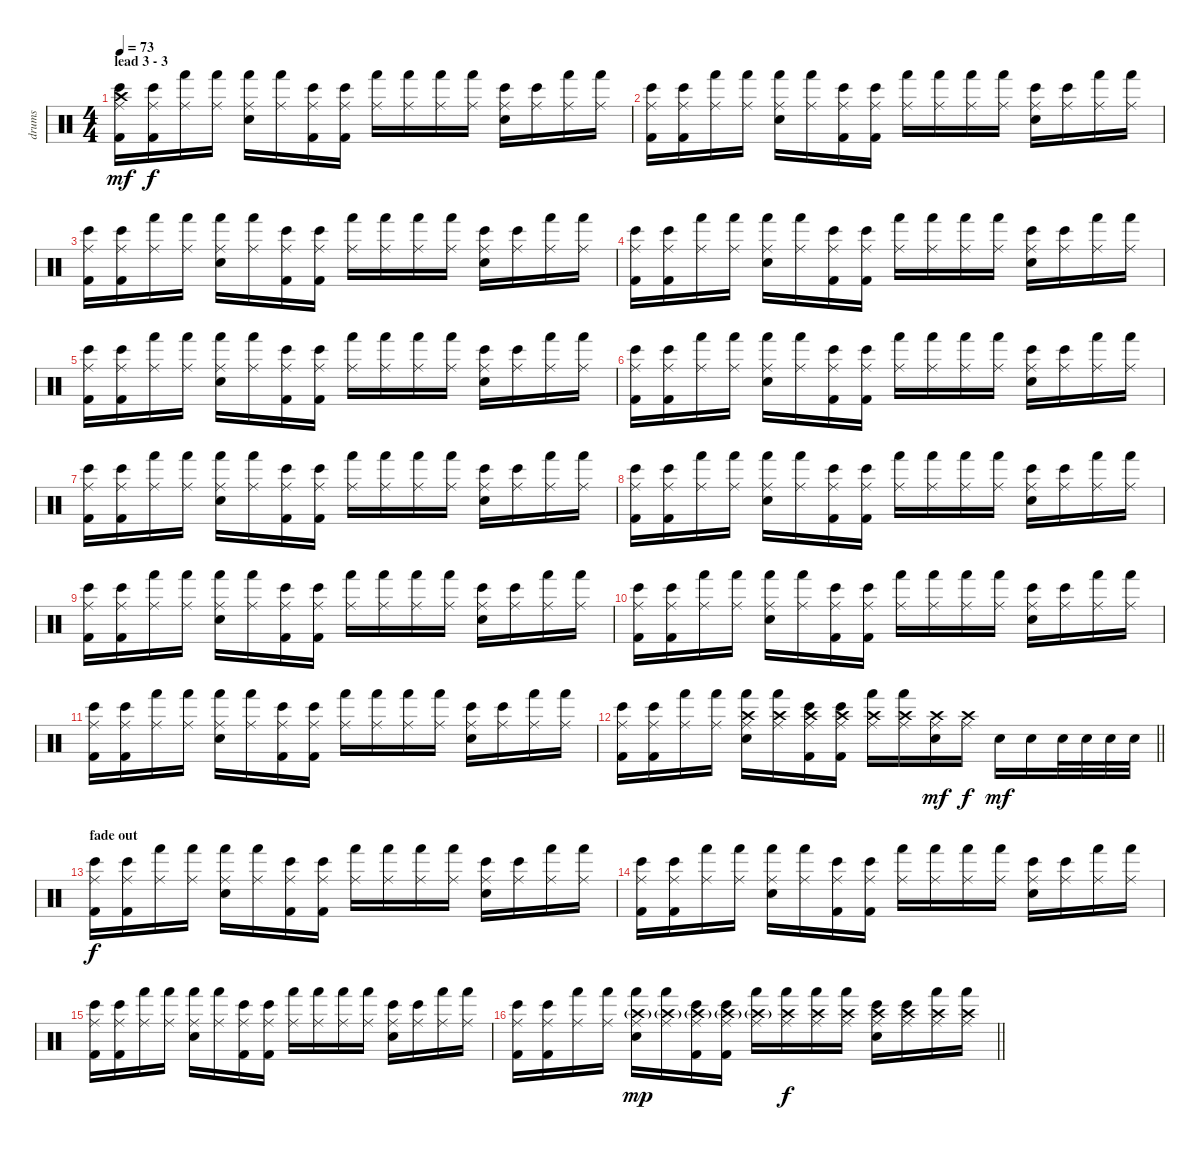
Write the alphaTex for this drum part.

\track ("drums" "drums") {instrument percussion}
\staff {score}
\articulation defaults
\ts (4 4)
\section ("" "lead 3 - 3")
\tempo 73
\clef neutral
\ks c
("Kick (hit) 2" "Bongo High (hit)" "Ride (middle)" "Crash high (hit)").16{dy mf} ("Kick (hit) 2" "Bongo High (hit)" "Ride (middle)").16{dy f} ("Hand (hit)" "Ride (middle)").16 ("Hand (hit)" "Ride (middle)").16 ("Electric Snare (hit)" "Hand (hit)" "Ride (middle)").16 ("Hand (hit)" "Ride (middle)").16 ("Kick (hit) 2" "Bongo High (hit)" "Ride (middle)").16 ("Kick (hit) 2" "Bongo High (hit)" "Ride (middle)").16 ("Hand (hit)" "Ride (middle)").16 ("Hand (hit)" "Ride (middle)").16 ("Hand (hit)" "Ride (middle)").16 ("Hand (hit)" "Ride (middle)").16 ("Electric Snare (hit)" "Bongo High (hit)" "Ride (middle)").16 ("Bongo High (hit)" "Ride (middle)").16 ("Hand (hit)" "Ride (middle)").16 ("Hand (hit)" "Ride (middle)").16 |
("Kick (hit) 2" "Bongo High (hit)" "Ride (middle)").16 ("Kick (hit) 2" "Bongo High (hit)" "Ride (middle)").16 ("Hand (hit)" "Ride (middle)").16 ("Hand (hit)" "Ride (middle)").16 ("Electric Snare (hit)" "Hand (hit)" "Ride (middle)").16 ("Hand (hit)" "Ride (middle)").16 ("Kick (hit) 2" "Bongo High (hit)" "Ride (middle)").16 ("Kick (hit) 2" "Bongo High (hit)" "Ride (middle)").16 ("Hand (hit)" "Ride (middle)").16 ("Hand (hit)" "Ride (middle)").16 ("Hand (hit)" "Ride (middle)").16 ("Hand (hit)" "Ride (middle)").16 ("Electric Snare (hit)" "Bongo High (hit)" "Ride (middle)").16 ("Bongo High (hit)" "Ride (middle)").16 ("Hand (hit)" "Ride (middle)").16 ("Hand (hit)" "Ride (middle)").16 |
("Kick (hit) 2" "Bongo High (hit)" "Ride (middle)").16 ("Kick (hit) 2" "Bongo High (hit)" "Ride (middle)").16 ("Hand (hit)" "Ride (middle)").16 ("Hand (hit)" "Ride (middle)").16 ("Electric Snare (hit)" "Hand (hit)" "Ride (middle)").16 ("Hand (hit)" "Ride (middle)").16 ("Kick (hit) 2" "Bongo High (hit)" "Ride (middle)").16 ("Kick (hit) 2" "Bongo High (hit)" "Ride (middle)").16 ("Hand (hit)" "Ride (middle)").16 ("Hand (hit)" "Ride (middle)").16 ("Hand (hit)" "Ride (middle)").16 ("Hand (hit)" "Ride (middle)").16 ("Electric Snare (hit)" "Bongo High (hit)" "Ride (middle)").16 ("Bongo High (hit)" "Ride (middle)").16 ("Hand (hit)" "Ride (middle)").16 ("Hand (hit)" "Ride (middle)").16 |
("Kick (hit) 2" "Bongo High (hit)" "Ride (middle)").16 ("Kick (hit) 2" "Bongo High (hit)" "Ride (middle)").16 ("Hand (hit)" "Ride (middle)").16 ("Hand (hit)" "Ride (middle)").16 ("Electric Snare (hit)" "Hand (hit)" "Ride (middle)").16 ("Hand (hit)" "Ride (middle)").16 ("Kick (hit) 2" "Bongo High (hit)" "Ride (middle)").16 ("Kick (hit) 2" "Bongo High (hit)" "Ride (middle)").16 ("Hand (hit)" "Ride (middle)").16 ("Hand (hit)" "Ride (middle)").16 ("Hand (hit)" "Ride (middle)").16 ("Hand (hit)" "Ride (middle)").16 ("Electric Snare (hit)" "Bongo High (hit)" "Ride (middle)").16 ("Bongo High (hit)" "Ride (middle)").16 ("Hand (hit)" "Ride (middle)").16 ("Hand (hit)" "Ride (middle)").16 |
("Kick (hit) 2" "Bongo High (hit)" "Ride (middle)").16 ("Kick (hit) 2" "Bongo High (hit)" "Ride (middle)").16 ("Hand (hit)" "Ride (middle)").16 ("Hand (hit)" "Ride (middle)").16 ("Electric Snare (hit)" "Hand (hit)" "Ride (middle)").16 ("Hand (hit)" "Ride (middle)").16 ("Kick (hit) 2" "Bongo High (hit)" "Ride (middle)").16 ("Kick (hit) 2" "Bongo High (hit)" "Ride (middle)").16 ("Hand (hit)" "Ride (middle)").16 ("Hand (hit)" "Ride (middle)").16 ("Hand (hit)" "Ride (middle)").16 ("Hand (hit)" "Ride (middle)").16 ("Electric Snare (hit)" "Bongo High (hit)" "Ride (middle)").16 ("Bongo High (hit)" "Ride (middle)").16 ("Hand (hit)" "Ride (middle)").16 ("Hand (hit)" "Ride (middle)").16 |
("Kick (hit) 2" "Bongo High (hit)" "Ride (middle)").16 ("Kick (hit) 2" "Bongo High (hit)" "Ride (middle)").16 ("Hand (hit)" "Ride (middle)").16 ("Hand (hit)" "Ride (middle)").16 ("Electric Snare (hit)" "Hand (hit)" "Ride (middle)").16 ("Hand (hit)" "Ride (middle)").16 ("Kick (hit) 2" "Bongo High (hit)" "Ride (middle)").16 ("Kick (hit) 2" "Bongo High (hit)" "Ride (middle)").16 ("Hand (hit)" "Ride (middle)").16 ("Hand (hit)" "Ride (middle)").16 ("Hand (hit)" "Ride (middle)").16 ("Hand (hit)" "Ride (middle)").16 ("Electric Snare (hit)" "Bongo High (hit)" "Ride (middle)").16 ("Bongo High (hit)" "Ride (middle)").16 ("Hand (hit)" "Ride (middle)").16 ("Hand (hit)" "Ride (middle)").16 |
("Kick (hit) 2" "Bongo High (hit)" "Ride (middle)").16 ("Kick (hit) 2" "Bongo High (hit)" "Ride (middle)").16 ("Hand (hit)" "Ride (middle)").16 ("Hand (hit)" "Ride (middle)").16 ("Electric Snare (hit)" "Hand (hit)" "Ride (middle)").16 ("Hand (hit)" "Ride (middle)").16 ("Kick (hit) 2" "Bongo High (hit)" "Ride (middle)").16 ("Kick (hit) 2" "Bongo High (hit)" "Ride (middle)").16 ("Hand (hit)" "Ride (middle)").16 ("Hand (hit)" "Ride (middle)").16 ("Hand (hit)" "Ride (middle)").16 ("Hand (hit)" "Ride (middle)").16 ("Electric Snare (hit)" "Bongo High (hit)" "Ride (middle)").16 ("Bongo High (hit)" "Ride (middle)").16 ("Hand (hit)" "Ride (middle)").16 ("Hand (hit)" "Ride (middle)").16 |
("Kick (hit) 2" "Bongo High (hit)" "Ride (middle)").16 ("Kick (hit) 2" "Bongo High (hit)" "Ride (middle)").16 ("Hand (hit)" "Ride (middle)").16 ("Hand (hit)" "Ride (middle)").16 ("Electric Snare (hit)" "Hand (hit)" "Ride (middle)").16 ("Hand (hit)" "Ride (middle)").16 ("Kick (hit) 2" "Bongo High (hit)" "Ride (middle)").16 ("Kick (hit) 2" "Bongo High (hit)" "Ride (middle)").16 ("Hand (hit)" "Ride (middle)").16 ("Hand (hit)" "Ride (middle)").16 ("Hand (hit)" "Ride (middle)").16 ("Hand (hit)" "Ride (middle)").16 ("Electric Snare (hit)" "Bongo High (hit)" "Ride (middle)").16 ("Bongo High (hit)" "Ride (middle)").16 ("Hand (hit)" "Ride (middle)").16 ("Hand (hit)" "Ride (middle)").16 |
("Kick (hit) 2" "Bongo High (hit)" "Ride (middle)").16 ("Kick (hit) 2" "Bongo High (hit)" "Ride (middle)").16 ("Hand (hit)" "Ride (middle)").16 ("Hand (hit)" "Ride (middle)").16 ("Electric Snare (hit)" "Hand (hit)" "Ride (middle)").16 ("Hand (hit)" "Ride (middle)").16 ("Kick (hit) 2" "Bongo High (hit)" "Ride (middle)").16 ("Kick (hit) 2" "Bongo High (hit)" "Ride (middle)").16 ("Hand (hit)" "Ride (middle)").16 ("Hand (hit)" "Ride (middle)").16 ("Hand (hit)" "Ride (middle)").16 ("Hand (hit)" "Ride (middle)").16 ("Electric Snare (hit)" "Bongo High (hit)" "Ride (middle)").16 ("Bongo High (hit)" "Ride (middle)").16 ("Hand (hit)" "Ride (middle)").16 ("Hand (hit)" "Ride (middle)").16 |
("Kick (hit) 2" "Bongo High (hit)" "Ride (middle)").16 ("Kick (hit) 2" "Bongo High (hit)" "Ride (middle)").16 ("Hand (hit)" "Ride (middle)").16 ("Hand (hit)" "Ride (middle)").16 ("Electric Snare (hit)" "Hand (hit)" "Ride (middle)").16 ("Hand (hit)" "Ride (middle)").16 ("Kick (hit) 2" "Bongo High (hit)" "Ride (middle)").16 ("Kick (hit) 2" "Bongo High (hit)" "Ride (middle)").16 ("Hand (hit)" "Ride (middle)").16 ("Hand (hit)" "Ride (middle)").16 ("Hand (hit)" "Ride (middle)").16 ("Hand (hit)" "Ride (middle)").16 ("Electric Snare (hit)" "Bongo High (hit)" "Ride (middle)").16 ("Bongo High (hit)" "Ride (middle)").16 ("Hand (hit)" "Ride (middle)").16 ("Hand (hit)" "Ride (middle)").16 |
("Kick (hit) 2" "Bongo High (hit)" "Ride (middle)").16 ("Kick (hit) 2" "Bongo High (hit)" "Ride (middle)").16 ("Hand (hit)" "Ride (middle)").16 ("Hand (hit)" "Ride (middle)").16 ("Electric Snare (hit)" "Hand (hit)" "Ride (middle)").16 ("Hand (hit)" "Ride (middle)").16 ("Kick (hit) 2" "Bongo High (hit)" "Ride (middle)").16 ("Kick (hit) 2" "Bongo High (hit)" "Ride (middle)").16 ("Hand (hit)" "Ride (middle)").16 ("Hand (hit)" "Ride (middle)").16 ("Hand (hit)" "Ride (middle)").16 ("Hand (hit)" "Ride (middle)").16 ("Electric Snare (hit)" "Bongo High (hit)" "Ride (middle)").16 ("Bongo High (hit)" "Ride (middle)").16 ("Hand (hit)" "Ride (middle)").16 ("Hand (hit)" "Ride (middle)").16 |
\barLineRight lightlight
("Kick (hit) 2" "Bongo High (hit)" "Ride (middle)").16 ("Kick (hit) 2" "Bongo High (hit)" "Ride (middle)").16 ("Hand (hit)" "Ride (middle)").16 ("Hand (hit)" "Ride (middle)").16 ("Electric Snare (hit)" "Hand (hit)" "Ride (middle)" "Crash high (hit)").16 ("Hand (hit)" "Ride (middle)" "Crash high (hit)").16 ("Kick (hit) 2" "Bongo High (hit)" "Ride (middle)" "Crash high (hit)").16 ("Kick (hit) 2" "Bongo High (hit)" "Ride (middle)" "Crash high (hit)").16 ("Hand (hit)" "Ride (middle)" "Crash high (hit)").16 ("Hand (hit)" "Ride (middle)" "Crash high (hit)").16 ("Electric Snare (hit)" "Ride (middle)" "Crash high (hit)").16{dy mf} ("Ride (middle)" "Crash high (hit)").16{dy f} "Electric Snare (hit)".16{dy mf} "Electric Snare (hit)".16 "Electric Snare (hit)".32 "Electric Snare (hit)".32 "Electric Snare (hit)".32 "Electric Snare (hit)".32 |
\section ("" "fade out")
("Kick (hit) 2" "Bongo High (hit)" "Ride (middle)").16{dy f} ("Kick (hit) 2" "Bongo High (hit)" "Ride (middle)").16 ("Hand (hit)" "Ride (middle)").16 ("Hand (hit)" "Ride (middle)").16 ("Electric Snare (hit)" "Hand (hit)" "Ride (middle)").16 ("Hand (hit)" "Ride (middle)").16 ("Kick (hit) 2" "Bongo High (hit)" "Ride (middle)").16 ("Kick (hit) 2" "Bongo High (hit)" "Ride (middle)").16 ("Hand (hit)" "Ride (middle)").16 ("Hand (hit)" "Ride (middle)").16 ("Hand (hit)" "Ride (middle)").16 ("Hand (hit)" "Ride (middle)").16 ("Electric Snare (hit)" "Bongo High (hit)" "Ride (middle)").16 ("Bongo High (hit)" "Ride (middle)").16 ("Hand (hit)" "Ride (middle)").16 ("Hand (hit)" "Ride (middle)").16 |
("Kick (hit) 2" "Bongo High (hit)" "Ride (middle)").16 ("Kick (hit) 2" "Bongo High (hit)" "Ride (middle)").16 ("Hand (hit)" "Ride (middle)").16 ("Hand (hit)" "Ride (middle)").16 ("Electric Snare (hit)" "Hand (hit)" "Ride (middle)").16 ("Hand (hit)" "Ride (middle)").16 ("Kick (hit) 2" "Bongo High (hit)" "Ride (middle)").16 ("Kick (hit) 2" "Bongo High (hit)" "Ride (middle)").16 ("Hand (hit)" "Ride (middle)").16 ("Hand (hit)" "Ride (middle)").16 ("Hand (hit)" "Ride (middle)").16 ("Hand (hit)" "Ride (middle)").16 ("Electric Snare (hit)" "Bongo High (hit)" "Ride (middle)").16 ("Bongo High (hit)" "Ride (middle)").16 ("Hand (hit)" "Ride (middle)").16 ("Hand (hit)" "Ride (middle)").16 |
("Kick (hit) 2" "Bongo High (hit)" "Ride (middle)").16 ("Kick (hit) 2" "Bongo High (hit)" "Ride (middle)").16 ("Hand (hit)" "Ride (middle)").16 ("Hand (hit)" "Ride (middle)").16 ("Electric Snare (hit)" "Hand (hit)" "Ride (middle)").16 ("Hand (hit)" "Ride (middle)").16 ("Kick (hit) 2" "Bongo High (hit)" "Ride (middle)").16 ("Kick (hit) 2" "Bongo High (hit)" "Ride (middle)").16 ("Hand (hit)" "Ride (middle)").16 ("Hand (hit)" "Ride (middle)").16 ("Hand (hit)" "Ride (middle)").16 ("Hand (hit)" "Ride (middle)").16 ("Electric Snare (hit)" "Bongo High (hit)" "Ride (middle)").16 ("Bongo High (hit)" "Ride (middle)").16 ("Hand (hit)" "Ride (middle)").16 ("Hand (hit)" "Ride (middle)").16 |
\barLineRight lightlight
("Kick (hit) 2" "Bongo High (hit)" "Ride (middle)").16 ("Kick (hit) 2" "Bongo High (hit)" "Ride (middle)").16 ("Hand (hit)" "Ride (middle)").16 ("Hand (hit)" "Ride (middle)").16 ("Electric Snare (hit)" "Hand (hit)" "Ride (middle)" "Crash high (hit)"{g}).16{dy mp} ("Hand (hit)" "Ride (middle)" "Crash high (hit)"{g}).16 ("Kick (hit) 2" "Bongo High (hit)" "Ride (middle)" "Crash high (hit)"{g}).16 ("Kick (hit) 2" "Bongo High (hit)" "Ride (middle)" "Crash high (hit)"{g}).16 ("Hand (hit)" "Ride (middle)" "Crash high (hit)"{g}).16 ("Hand (hit)" "Ride (middle)" "Crash high (hit)").16{dy f} ("Hand (hit)" "Ride (middle)" "Crash high (hit)").16 ("Hand (hit)" "Ride (middle)" "Crash high (hit)").16 ("Electric Snare (hit)" "Bongo High (hit)" "Ride (middle)" "Crash high (hit)").16 ("Bongo High (hit)" "Ride (middle)" "Crash high (hit)").16 ("Hand (hit)" "Ride (middle)" "Crash high (hit)").16 ("Hand (hit)" "Ride (middle)" "Crash high (hit)").16
